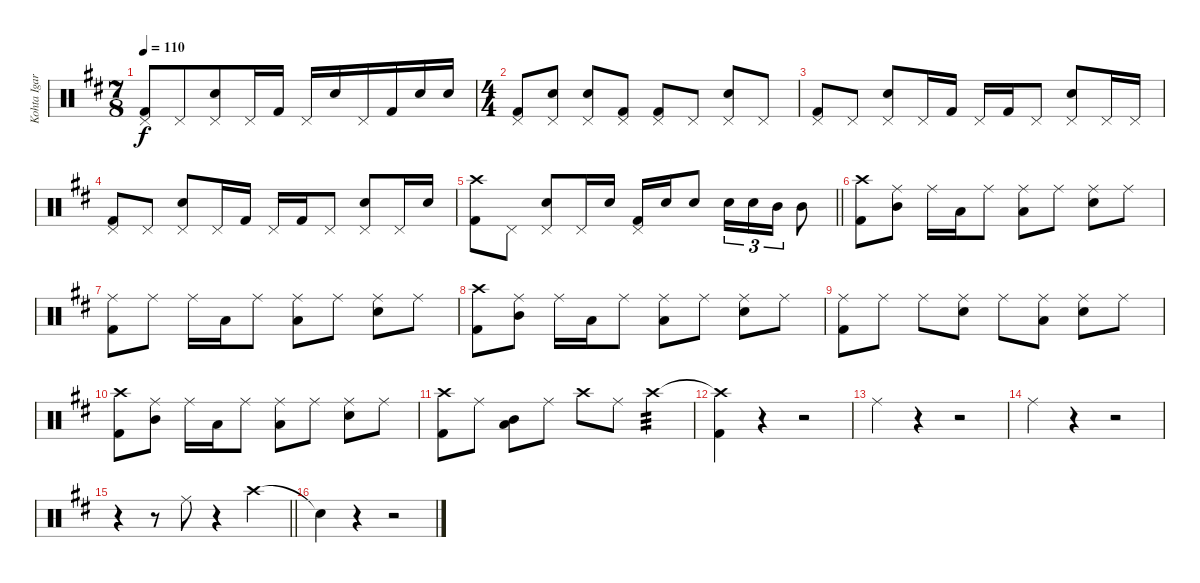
\track ("Kohta Igarashi" "Kohta Igar") {instrument percussion}
\staff {score}
\articulation defaults
\ts (7 8)
\tempo 110
\clef neutral
\ks d
("Pedal Hi-Hat (hit)" "Kick (hit) 2").8{dy f} "Pedal Hi-Hat (hit)".8 ("Pedal Hi-Hat (hit)" "Electric Snare (hit)").8 "Pedal Hi-Hat (hit)".16 "Kick (hit) 2".16 "Pedal Hi-Hat (hit)".16 "Electric Snare (hit)".16 "Pedal Hi-Hat (hit)".16 "Kick (hit) 2".16 "Electric Snare (hit)".16 "Electric Snare (hit)".16 |
\ts (4 4)
("Pedal Hi-Hat (hit)" "Kick (hit) 2").8 ("Pedal Hi-Hat (hit)" "Electric Snare (hit)").8 ("Pedal Hi-Hat (hit)" "Electric Snare (hit)").8 ("Pedal Hi-Hat (hit)" "Kick (hit) 2").8 ("Pedal Hi-Hat (hit)" "Kick (hit) 2").8 "Pedal Hi-Hat (hit)".8 ("Pedal Hi-Hat (hit)" "Electric Snare (hit)").8 "Pedal Hi-Hat (hit)".8 |
("Pedal Hi-Hat (hit)" "Kick (hit) 2").8 "Pedal Hi-Hat (hit)".8 ("Pedal Hi-Hat (hit)" "Electric Snare (hit)").8 "Pedal Hi-Hat (hit)".16 "Kick (hit) 2".16 "Pedal Hi-Hat (hit)".16 "Kick (hit) 2".16 "Pedal Hi-Hat (hit)".8 ("Pedal Hi-Hat (hit)" "Electric Snare (hit)").8 "Pedal Hi-Hat (hit)".16 "Pedal Hi-Hat (hit)".16 |
("Pedal Hi-Hat (hit)" "Kick (hit) 2").8 "Pedal Hi-Hat (hit)".8 ("Pedal Hi-Hat (hit)" "Electric Snare (hit)").8 "Pedal Hi-Hat (hit)".16 "Kick (hit) 2".16 "Pedal Hi-Hat (hit)".16 "Kick (hit) 2".16 "Pedal Hi-Hat (hit)".8 ("Pedal Hi-Hat (hit)" "Electric Snare (hit)").8 "Pedal Hi-Hat (hit)".16 "Electric Snare (hit)".16 |
\barLineRight lightlight
("Crash high (hit)" "Kick (hit) 2").8 "Pedal Hi-Hat (hit)".8 ("Pedal Hi-Hat (hit)" "Electric Snare (hit)").8 "Pedal Hi-Hat (hit)".16 "Electric Snare (hit)".16 ("Pedal Hi-Hat (hit)" "Kick (hit) 2").16 "Electric Snare (hit)".16 "Electric Snare (hit)".8 "Electric Snare (hit)".16{tu (3 2)} "Electric Snare (hit)".16{tu (3 2)} "Mid Tom (hit)".16{tu (3 2)} "Mid Tom (hit)".8 |
("Crash high (hit)" "Kick (hit) 2").8 ("Ride (middle)" "Mid Tom (hit)").8 "Ride (middle)".16 "Low Tom (hit)".16 "Ride (middle)".8 ("Ride (middle)" "Low Floor Tom (hit)").8 "Ride (middle)".8 ("Ride (middle)" "Electric Snare (hit)").8 "Ride (middle)".8 |
("Ride (middle)" "Kick (hit) 2").8 "Ride (middle)".8 "Ride (middle)".16 "Low Tom (hit)".16 "Ride (middle)".8 ("Ride (middle)" "Low Floor Tom (hit)").8 "Ride (middle)".8 ("Ride (middle)" "Electric Snare (hit)").8 "Ride (middle)".8 |
("Crash high (hit)" "Kick (hit) 2").8 ("Ride (middle)" "Mid Tom (hit)").8 "Ride (middle)".16 "Low Tom (hit)".16 "Ride (middle)".8 ("Ride (middle)" "Low Floor Tom (hit)").8 "Ride (middle)".8 ("Ride (middle)" "Electric Snare (hit)").8 "Ride (middle)".8 |
("Ride (middle)" "Kick (hit) 2").8 "Ride (middle)".8 "Ride (middle)".8 ("Ride (middle)" "Electric Snare (hit)").8 "Ride (middle)".8 ("Ride (middle)" "Low Floor Tom (hit)").8 ("Ride (middle)" "Electric Snare (hit)").8 "Ride (middle)".8 |
("Crash high (hit)" "Kick (hit) 2").8 ("Ride (middle)" "Mid Tom (hit)").8 "Ride (middle)".16 "Low Tom (hit)".16 "Ride (middle)".8 ("Ride (middle)" "Low Floor Tom (hit)").8 "Ride (middle)".8 ("Ride (middle)" "Electric Snare (hit)").8 "Ride (middle)".8 |
("Crash high (hit)" "Kick (hit) 2").8 "Ride (middle)".8 ("Mid Tom (hit)" "Low Floor Tom (hit)").8 "Ride (middle)".8 "Crash high (hit)".8 "Ride (middle)".8 "Crash high (hit)".4{tp 3 volume 8} |
("Crash high (hit)"{t} "Kick (hit) 2").4 r.4 r.2 |
"Ride (middle)".4{volume 12} r.4 r.2 |
"Ride (middle)".4 r.4 r.2 |
\barLineRight lightlight
r.4 r.8 "Ride (middle)".8 r.4 "Crash high (hit)".4 |
"Snare (hit)"{t}.4 r.4 r.2
